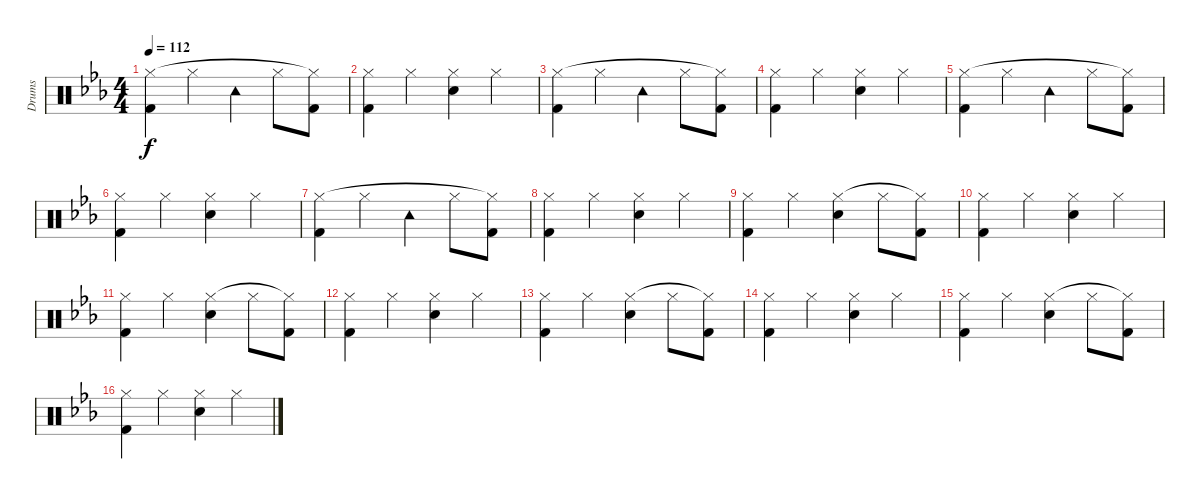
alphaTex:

\track ("Drums" "Drums") {instrument percussion}
\staff {score}
\articulation defaults
\ts (4 4)
\tempo 112
\clef neutral
\ks eb
("Kick (hit) 2" "Hi-Hat (closed)").4{dy f} "Hi-Hat (closed)".4 "Tambourine (hit)".4 "Hi-Hat (closed)".8 ("Kick (hit) 2" "Hi-Hat (closed)"{t}).8 |
("Kick (hit) 2" "Hi-Hat (closed)").4 "Hi-Hat (closed)".4 ("Snare (hit) 2" "Hi-Hat (closed)").4 "Hi-Hat (closed)".4 |
("Kick (hit) 2" "Hi-Hat (closed)").4 "Hi-Hat (closed)".4 "Tambourine (hit)".4 "Hi-Hat (closed)".8 ("Kick (hit) 2" "Hi-Hat (closed)"{t}).8 |
("Kick (hit) 2" "Hi-Hat (closed)").4 "Hi-Hat (closed)".4 ("Snare (hit) 2" "Hi-Hat (closed)").4 "Hi-Hat (closed)".4 |
("Kick (hit) 2" "Hi-Hat (closed)").4 "Hi-Hat (closed)".4 "Tambourine (hit)".4 "Hi-Hat (closed)".8 ("Kick (hit) 2" "Hi-Hat (closed)"{t}).8 |
("Kick (hit) 2" "Hi-Hat (closed)").4 "Hi-Hat (closed)".4 ("Snare (hit) 2" "Hi-Hat (closed)").4 "Hi-Hat (closed)".4 |
("Kick (hit) 2" "Hi-Hat (closed)").4 "Hi-Hat (closed)".4 "Tambourine (hit)".4 "Hi-Hat (closed)".8 ("Kick (hit) 2" "Hi-Hat (closed)"{t}).8 |
("Kick (hit) 2" "Hi-Hat (closed)").4 "Hi-Hat (closed)".4 ("Snare (hit) 2" "Hi-Hat (closed)").4 "Hi-Hat (closed)".4 |
("Kick (hit) 2" "Hi-Hat (closed)").4 "Hi-Hat (closed)".4 ("Snare (hit) 2" "Hi-Hat (closed)").4 "Hi-Hat (closed)".8 ("Kick (hit) 2" "Hi-Hat (closed)"{t}).8 |
("Kick (hit) 2" "Hi-Hat (closed)").4 "Hi-Hat (closed)".4 ("Snare (hit) 2" "Hi-Hat (closed)").4 "Hi-Hat (closed)".4 |
("Kick (hit) 2" "Hi-Hat (closed)").4 "Hi-Hat (closed)".4 ("Snare (hit) 2" "Hi-Hat (closed)").4 "Hi-Hat (closed)".8 ("Kick (hit) 2" "Hi-Hat (closed)"{t}).8 |
("Kick (hit) 2" "Hi-Hat (closed)").4 "Hi-Hat (closed)".4 ("Snare (hit) 2" "Hi-Hat (closed)").4 "Hi-Hat (closed)".4 |
("Kick (hit) 2" "Hi-Hat (closed)").4 "Hi-Hat (closed)".4 ("Snare (hit) 2" "Hi-Hat (closed)").4 "Hi-Hat (closed)".8 ("Kick (hit) 2" "Hi-Hat (closed)"{t}).8 |
("Kick (hit) 2" "Hi-Hat (closed)").4 "Hi-Hat (closed)".4 ("Snare (hit) 2" "Hi-Hat (closed)").4 "Hi-Hat (closed)".4 |
("Kick (hit) 2" "Hi-Hat (closed)").4 "Hi-Hat (closed)".4 ("Snare (hit) 2" "Hi-Hat (closed)").4 "Hi-Hat (closed)".8 ("Kick (hit) 2" "Hi-Hat (closed)"{t}).8 |
("Kick (hit) 2" "Hi-Hat (closed)").4 "Hi-Hat (closed)".4 ("Snare (hit) 2" "Hi-Hat (closed)").4 "Hi-Hat (closed)".4
